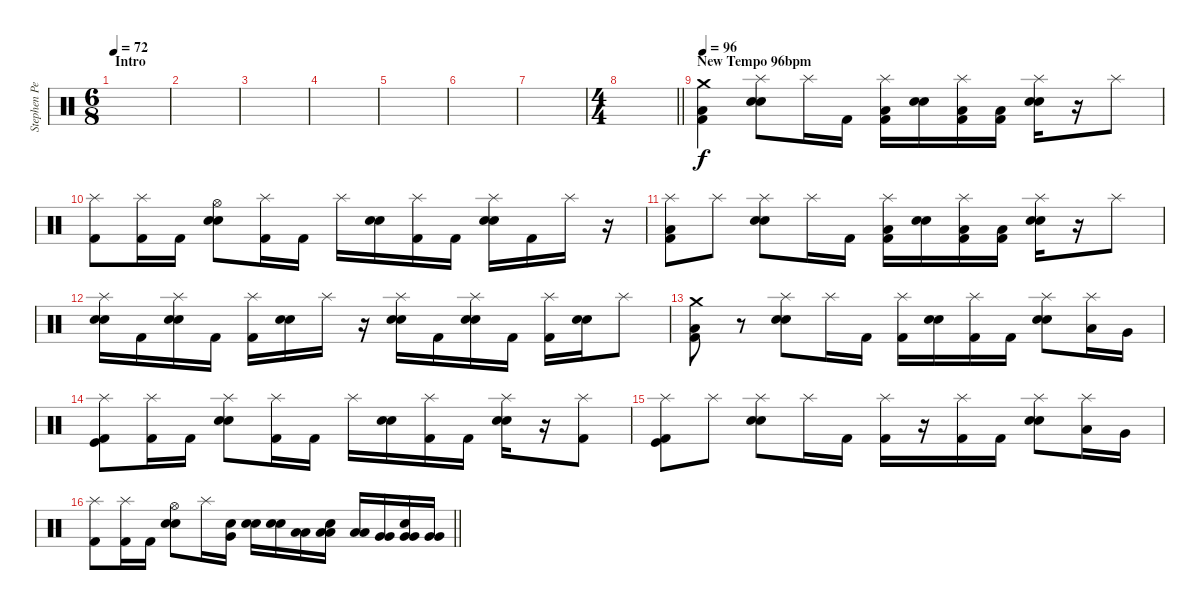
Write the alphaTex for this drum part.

\track ("Stephen Perkins Drums" "Stephen Pe") {instrument percussion}
\staff {score}
\articulation defaults
\ts (6 8)
\section ("" "Intro")
\tempo 72
\clef neutral
\ks c
|
|
|
|
|
|
|
\ts (4 4)
\barLineRight lightlight
|
\section ("" "New Tempo 96bpm")
\tempo 96
("Crash medium (hit)" "Low Floor Tom (hit)" "Kick (hit) 2").4 ("Splash (hit)" "Electric Snare (hit)" "Snare (hit) 2").8 "Splash (hit)".16 "Kick (hit) 2".16 ("Splash (hit)" "Low Floor Tom (hit)" "Kick (hit) 2").16 ("Snare (hit) 2" "Electric Snare (hit)").16 ("Splash (hit)" "Low Floor Tom (hit)" "Kick (hit) 2").16 ("Low Floor Tom (hit)" "Kick (hit) 2").16 ("Splash (hit)" "Snare (hit) 2" "Electric Snare (hit)").16 r.16 "Splash (hit)".8 |
("Splash (hit)" "Kick (hit) 2").8 ("Splash (hit)" "Kick (hit) 2").16 "Kick (hit) 2".16 ("Hi-Hat (open)" "Electric Snare (hit)" "Snare (hit) 2").8 ("Splash (hit)" "Kick (hit) 2").16 "Kick (hit) 2".16 "Splash (hit)".16 ("Snare (hit) 2" "Electric Snare (hit)").16 ("Splash (hit)" "Kick (hit) 2").16 "Kick (hit) 2".16 ("Splash (hit)" "Snare (hit) 2" "Electric Snare (hit)").16 "Kick (hit) 2".16 "Splash (hit)".16 r.16 |
("Splash (hit)" "Low Floor Tom (hit)" "Kick (hit) 2").8 "Splash (hit)".8 ("Splash (hit)" "Electric Snare (hit)" "Snare (hit) 2").8 "Splash (hit)".16 "Kick (hit) 2".16 ("Splash (hit)" "Low Floor Tom (hit)" "Kick (hit) 2").16 ("Snare (hit) 2" "Electric Snare (hit)").16 ("Splash (hit)" "Low Floor Tom (hit)" "Kick (hit) 2").16 ("Low Floor Tom (hit)" "Kick (hit) 2").16 ("Splash (hit)" "Snare (hit) 2" "Electric Snare (hit)").16 r.16 "Splash (hit)".8 |
("Splash (hit)" "Electric Snare (hit)" "Snare (hit) 2").16 "Kick (hit) 2".16 ("Splash (hit)" "Electric Snare (hit)" "Snare (hit) 2").16 "Kick (hit) 2".16 ("Splash (hit)" "Kick (hit) 2").16 ("Snare (hit) 2" "Electric Snare (hit)").16 "Splash (hit)".16 r.16 ("Splash (hit)" "Snare (hit) 2" "Electric Snare (hit)").16 "Kick (hit) 2".16 ("Splash (hit)" "Snare (hit) 2" "Electric Snare (hit)").16 "Kick (hit) 2".16 ("Splash (hit)" "Kick (hit) 2").16 ("Snare (hit) 2" "Electric Snare (hit)").16 "Splash (hit)".8 |
("Crash medium (hit)" "Low Floor Tom (hit)" "Kick (hit) 2").8 r.8 ("Splash (hit)" "Electric Snare (hit)" "Snare (hit) 2").8 "Splash (hit)".16 "Kick (hit) 2".16 ("Splash (hit)" "Kick (hit) 2").16 ("Snare (hit) 2" "Electric Snare (hit)").16 ("Splash (hit)" "Kick (hit) 2").16 "Kick (hit) 2".16 ("Splash (hit)" "Snare (hit) 2" "Electric Snare (hit)").8 ("Splash (hit)" "Low Tom (hit)").16 "Very Low Tom (hit)".16 |
("Splash (hit)" "Kick (hit)" "Kick (hit) 2").8 ("Splash (hit)" "Kick (hit) 2").16 "Kick (hit) 2".16 ("Splash (hit)" "Electric Snare (hit)" "Snare (hit) 2").8 ("Splash (hit)" "Kick (hit) 2").16 "Kick (hit) 2".16 "Splash (hit)".16 ("Snare (hit) 2" "Electric Snare (hit)").16 ("Splash (hit)" "Kick (hit) 2").16 "Kick (hit) 2".16 ("Splash (hit)" "Snare (hit) 2" "Electric Snare (hit)").16 r.16 ("Splash (hit)" "Kick (hit) 2").8 |
("Splash (hit)" "Kick (hit)" "Kick (hit) 2").8 "Splash (hit)".8 ("Splash (hit)" "Electric Snare (hit)" "Snare (hit) 2").8 "Splash (hit)".16 "Kick (hit) 2".16 ("Splash (hit)" "Kick (hit) 2").16 r.16 ("Splash (hit)" "Kick (hit) 2").16 "Kick (hit) 2".16 ("Splash (hit)" "Electric Snare (hit)" "Snare (hit) 2").8 ("Splash (hit)" "Low Tom (hit)").16 "Very Low Tom (hit)".16 |
\barLineRight lightlight
("Splash (hit)" "Kick (hit) 2").8 ("Splash (hit)" "Kick (hit) 2").16 "Kick (hit) 2".16 ("Hi-Hat (open)" "Electric Snare (hit)" "Snare (hit) 2").8 "Splash (hit)".16 ("Electric Snare (hit)" "Very Low Tom (hit)").16 ("Snare (hit) 2" "Electric Snare (hit)").16 ("Snare (hit) 2" "Electric Snare (hit)").16 ("Low Tom (hit)" "Low Tom (hit)").16 ("Electric Snare (hit)" "Low Tom (hit)" "Low Tom (hit)").16 ("Low Tom (hit)" "Low Tom (hit)").16 ("Very Low Tom (hit)" "Very Low Tom (hit)").16 ("Electric Snare (hit)" "Very Low Tom (hit)" "Very Low Tom (hit)").16 ("Very Low Tom (hit)" "Very Low Tom (hit)").16
